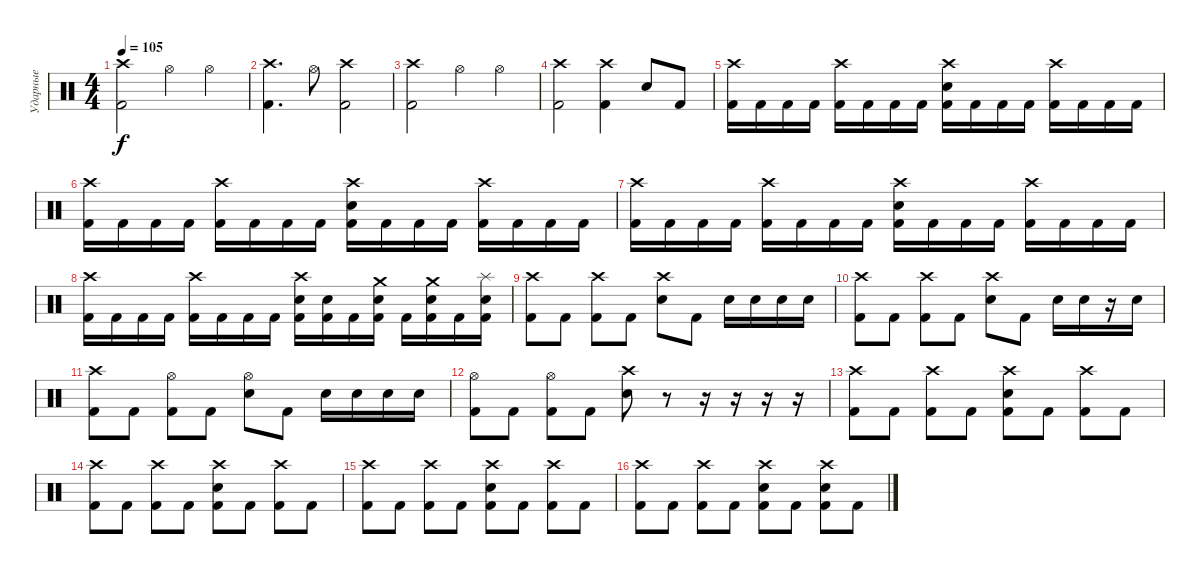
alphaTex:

\track ("Ударные" "Ударные") {instrument percussion}
\staff
\articulation defaults
\ts (4 4)
\tempo 105
\clef neutral
\ks c
("Crash high (hit)" "Kick (hit) 2").2{dy f} "Hi-Hat (open)".4 "Hi-Hat (open)".4 |
("Crash high (hit)" "Kick (hit) 2").4{d} "Hi-Hat (open)".8 ("Crash high (hit)" "Kick (hit) 2").2 |
("Crash high (hit)" "Kick (hit) 2").2 "Hi-Hat (open)".4 "Hi-Hat (open)".4 |
("Crash high (hit)" "Kick (hit) 2").2 ("Crash high (hit)" "Kick (hit) 2").4 "Electric Snare (hit)".8 "Kick (hit) 2".8 |
("Crash high (hit)" "Kick (hit) 2").16 "Kick (hit) 2".16 "Kick (hit) 2".16 "Kick (hit) 2".16 ("Crash high (hit)" "Kick (hit) 2").16 "Kick (hit) 2".16 "Kick (hit) 2".16 "Kick (hit) 2".16 ("Crash high (hit)" "Electric Snare (hit)" "Kick (hit) 2").16 "Kick (hit) 2".16 "Kick (hit) 2".16 "Kick (hit) 2".16 ("Crash high (hit)" "Kick (hit) 2").16 "Kick (hit) 2".16 "Kick (hit) 2".16 "Kick (hit) 2".16 |
("Crash high (hit)" "Kick (hit) 2").16 "Kick (hit) 2".16 "Kick (hit) 2".16 "Kick (hit) 2".16 ("Crash high (hit)" "Kick (hit) 2").16 "Kick (hit) 2".16 "Kick (hit) 2".16 "Kick (hit) 2".16 ("Crash high (hit)" "Electric Snare (hit)" "Kick (hit) 2").16 "Kick (hit) 2".16 "Kick (hit) 2".16 "Kick (hit) 2".16 ("Crash high (hit)" "Kick (hit) 2").16 "Kick (hit) 2".16 "Kick (hit) 2".16 "Kick (hit) 2".16 |
("Crash high (hit)" "Kick (hit) 2").16 "Kick (hit) 2".16 "Kick (hit) 2".16 "Kick (hit) 2".16 ("Crash high (hit)" "Kick (hit) 2").16 "Kick (hit) 2".16 "Kick (hit) 2".16 "Kick (hit) 2".16 ("Crash high (hit)" "Electric Snare (hit)" "Kick (hit) 2").16 "Kick (hit) 2".16 "Kick (hit) 2".16 "Kick (hit) 2".16 ("Crash high (hit)" "Kick (hit) 2").16 "Kick (hit) 2".16 "Kick (hit) 2".16 "Kick (hit) 2".16 |
("Crash high (hit)" "Kick (hit) 2").16 "Kick (hit) 2".16 "Kick (hit) 2".16 "Kick (hit) 2".16 ("Crash high (hit)" "Kick (hit) 2").16 "Kick (hit) 2".16 "Kick (hit) 2".16 "Kick (hit) 2".16 ("Crash high (hit)" "Electric Snare (hit)" "Kick (hit) 2").16 ("Electric Snare (hit)" "Kick (hit) 2").16 "Kick (hit) 2".16 ("Crash medium (hit)" "Electric Snare (hit)" "Kick (hit) 2").16 "Kick (hit) 2".16 ("Crash medium (hit)" "Electric Snare (hit)" "Kick (hit) 2").16 "Kick (hit) 2".16 ("Splash (hit)" "Electric Snare (hit)" "Kick (hit) 2").16 |
("Kick (hit) 2" "Crash high (hit)").8 "Kick (hit) 2".8 ("Kick (hit) 2" "Crash high (hit)").8 "Kick (hit) 2".8 ("Electric Snare (hit)" "Crash high (hit)").8 "Kick (hit) 2".8 "Electric Snare (hit)".16 "Electric Snare (hit)".16 "Electric Snare (hit)".16 "Electric Snare (hit)".16 |
("Kick (hit) 2" "Crash high (hit)").8 "Kick (hit) 2".8 ("Kick (hit) 2" "Crash high (hit)").8 "Kick (hit) 2".8 ("Electric Snare (hit)" "Crash high (hit)").8 "Kick (hit) 2".8 "Electric Snare (hit)".16 "Electric Snare (hit)".16 r.16 "Electric Snare (hit)".16 |
("Kick (hit) 2" "Crash high (hit)").8 "Kick (hit) 2".8 ("Kick (hit) 2" "Hi-Hat (open)").8 "Kick (hit) 2".8 ("Electric Snare (hit)" "Hi-Hat (open)").8 "Kick (hit) 2".8 "Electric Snare (hit)".16 "Electric Snare (hit)".16 "Electric Snare (hit)".16 "Electric Snare (hit)".16 |
("Kick (hit) 2" "Hi-Hat (open)").8 "Kick (hit) 2".8 ("Kick (hit) 2" "Hi-Hat (open)").8 "Kick (hit) 2".8 ("Electric Snare (hit)" "Crash high (hit)").8 r.8 r.16 r.16 r.16 r.16 |
("Crash high (hit)" "Kick (hit) 2").8 "Kick (hit) 2".8 ("Crash high (hit)" "Kick (hit) 2").8 "Kick (hit) 2".8 ("Crash high (hit)" "Electric Snare (hit)" "Kick (hit) 2").8 "Kick (hit) 2".8 ("Crash high (hit)" "Kick (hit) 2").8 "Kick (hit) 2".8 |
("Crash high (hit)" "Kick (hit) 2").8 "Kick (hit) 2".8 ("Crash high (hit)" "Kick (hit) 2").8 "Kick (hit) 2".8 ("Crash high (hit)" "Electric Snare (hit)" "Kick (hit) 2").8 "Kick (hit) 2".8 ("Crash high (hit)" "Kick (hit) 2").8 "Kick (hit) 2".8 |
("Crash high (hit)" "Kick (hit) 2").8 "Kick (hit) 2".8 ("Crash high (hit)" "Kick (hit) 2").8 "Kick (hit) 2".8 ("Crash high (hit)" "Electric Snare (hit)" "Kick (hit) 2").8 "Kick (hit) 2".8 ("Crash high (hit)" "Kick (hit) 2").8 "Kick (hit) 2".8 |
("Crash high (hit)" "Kick (hit) 2").8 "Kick (hit) 2".8 ("Crash high (hit)" "Kick (hit) 2").8 "Kick (hit) 2".8 ("Crash high (hit)" "Electric Snare (hit)" "Kick (hit) 2").8 "Kick (hit) 2".8 ("Crash high (hit)" "Electric Snare (hit)" "Kick (hit) 2").8 "Kick (hit) 2".8
